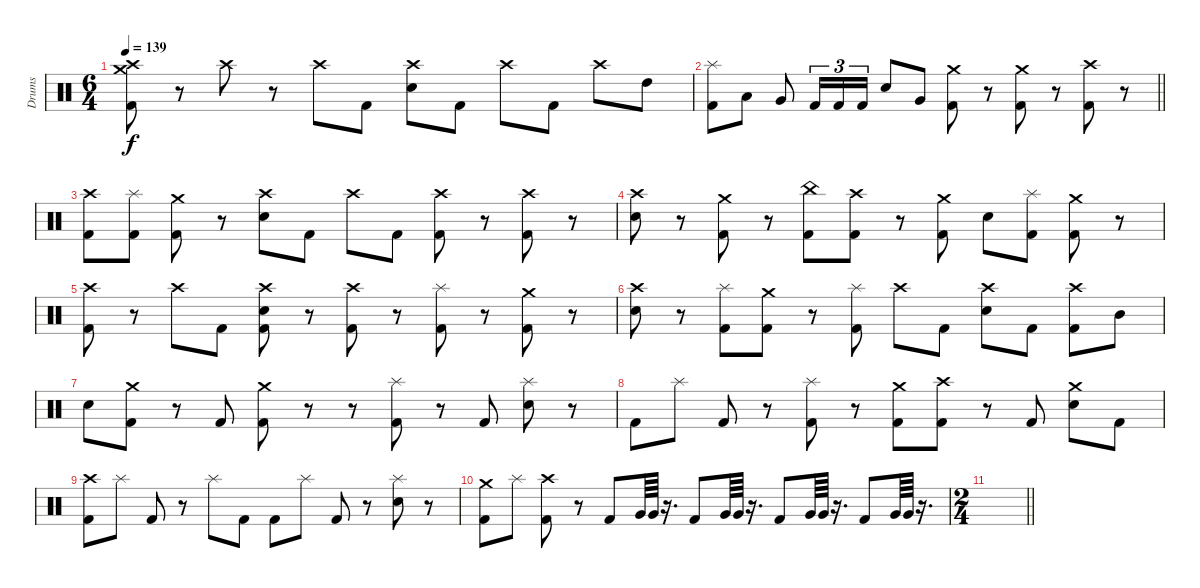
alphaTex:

\track ("Drums" "Drums") {instrument percussion}
\staff {score}
\articulation defaults
\ts (6 4)
\tempo 139
\clef neutral
\ks c
("Crash medium (hit)" "Crash high (hit)" "Kick (hit) 2").8{dy f} r.8 "Crash high (hit)".8 r.8 "Crash high (hit)".8 "Kick (hit) 2".8 ("Crash high (hit)" "Electric Snare (hit)").8 "Kick (hit) 2".8 "Crash high (hit)".8 "Kick (hit) 2".8 "Crash high (hit)".8 "High Tom (hit)".8 |
\barLineRight lightlight
("Splash (hit)" "Kick (hit) 2").8 "Low Tom (hit)".8 "Very Low Tom (hit)".8 "Kick (hit) 2".16{tu (3 2)} "Kick (hit) 2".16{tu (3 2)} "Kick (hit) 2".16{tu (3 2)} "Electric Snare (hit)".8 "Very Low Tom (hit)".8 ("Crash medium (hit)" "Kick (hit) 2").8 r.8 ("Crash medium (hit)" "Kick (hit) 2").8 r.8 ("Crash high (hit)" "Kick (hit) 2").8 r.8 |
\section ("" "")
("Crash high (hit)" "Kick (hit) 2").8 ("Splash (hit)" "Kick (hit) 2").8 ("Crash medium (hit)" "Kick (hit) 2").8 r.8 ("Crash high (hit)" "Electric Snare (hit)").8 "Kick (hit) 2".8 "Crash high (hit)".8 "Kick (hit) 2".8 ("Crash high (hit)" "Kick (hit) 2").8 r.8 ("Crash high (hit)" "Kick (hit) 2").8 r.8 |
("Crash high (hit)" "Electric Snare (hit)").8 r.8 ("Crash medium (hit)" "Kick (hit) 2").8 r.8 ("China (hit)" "Kick (hit) 2").8 ("Crash high (hit)" "Kick (hit) 2").8 r.8 ("Crash medium (hit)" "Kick (hit) 2").8 "Electric Snare (hit)".8 ("Splash (hit)" "Kick (hit) 2").8 ("Crash medium (hit)" "Kick (hit) 2").8 r.8 |
("Crash high (hit)" "Kick (hit) 2").8 r.8 "Crash high (hit)".8 "Kick (hit) 2".8 ("Crash high (hit)" "Electric Snare (hit)" "Kick (hit) 2").8 r.8 ("Crash high (hit)" "Kick (hit) 2").8 r.8 ("Splash (hit)" "Kick (hit) 2").8 r.8 ("Crash medium (hit)" "Kick (hit) 2").8 r.8 |
("Crash high (hit)" "Electric Snare (hit)").8 r.8 ("Splash (hit)" "Kick (hit) 2").8 ("Crash medium (hit)" "Kick (hit) 2").8 r.8 ("Splash (hit)" "Kick (hit) 2").8 "Crash high (hit)".8 "Kick (hit) 2".8 ("Crash high (hit)" "Electric Snare (hit)").8 "Kick (hit) 2".8 ("Crash high (hit)" "Kick (hit) 2").8 "Mid Tom (hit)".8 |
"Electric Snare (hit)".8 ("Crash medium (hit)" "Kick (hit) 2").8 r.8 "Kick (hit) 2".8 ("Crash medium (hit)" "Kick (hit) 2").8 r.8 r.8 ("Splash (hit)" "Kick (hit) 2").8 r.8 "Kick (hit) 2".8 ("Splash (hit)" "Electric Snare (hit)").8 r.8 |
"Kick (hit) 2".8 "Splash (hit)".8 "Kick (hit) 2".8 r.8 ("Splash (hit)" "Kick (hit) 2").8 r.8 ("Crash medium (hit)" "Kick (hit) 2").8 ("Crash high (hit)" "Kick (hit) 2").8 r.8 "Kick (hit) 2".8 ("Crash medium (hit)" "Electric Snare (hit)").8 "Kick (hit) 2".8 |
("Crash high (hit)" "Kick (hit) 2").8 "Splash (hit)".8 "Kick (hit) 2".8 r.8 "Splash (hit)".8 "Kick (hit) 2".8 "Kick (hit) 2".8 "Splash (hit)".8 "Kick (hit) 2".8 r.8 ("Splash (hit)" "Electric Snare (hit)").8 r.8 |
("Crash medium (hit)" "Kick (hit) 2").8 "Splash (hit)".8 ("Crash high (hit)" "Kick (hit) 2").8 r.8 "Kick (hit) 2".8 "Very Low Tom (hit)".64 "Very Low Tom (hit)".64 r.16{d} "Kick (hit) 2".8 "Very Low Tom (hit)".64 "Very Low Tom (hit)".64 r.16{d} "Kick (hit) 2".8 "Very Low Tom (hit)".64 "Very Low Tom (hit)".64 r.16{d} "Kick (hit) 2".8 "Very Low Tom (hit)".64 "Very Low Tom (hit)".64 r.16{d} |
\ts (2 4)
\barLineRight lightlight
